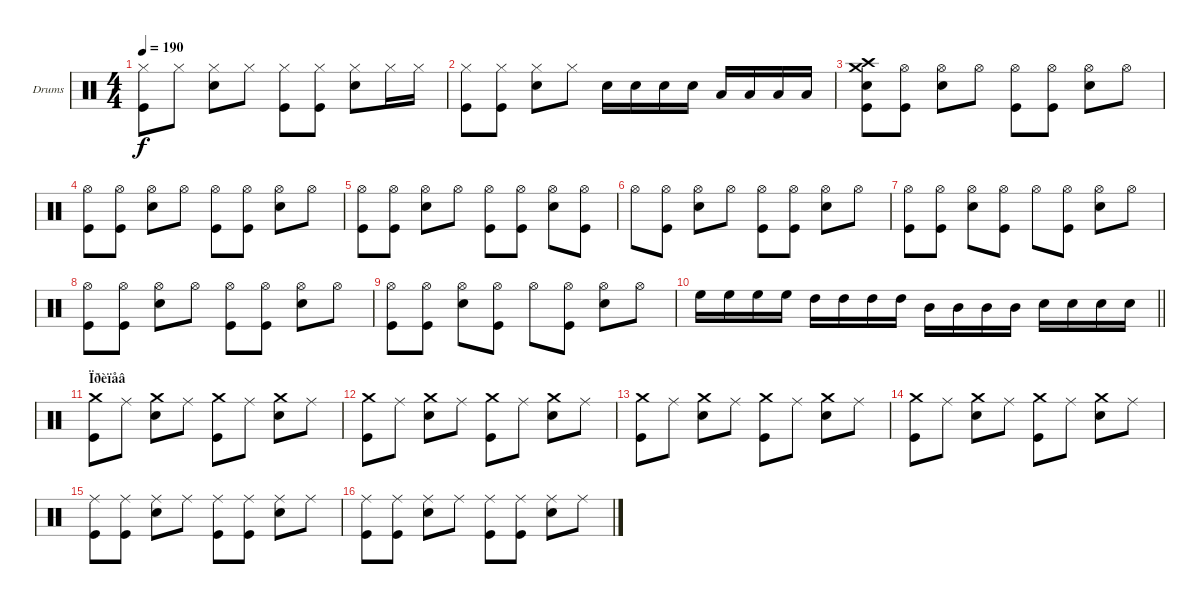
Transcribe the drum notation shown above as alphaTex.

\bracketExtendMode groupsimilarinstruments
\firstSystemTrackNameOrientation horizontal
\otherSystemsTrackNameOrientation horizontal
\track ("Drumkit" "Drums") {instrument percussion}
\staff {score}
\articulation defaults
\ts (4 4)
\tempo 190
\clef neutral
\ks c
("Hi-Hat (closed)" "Kick (hit)").8{dy f} "Hi-Hat (closed)".8 ("Hi-Hat (closed)" "Snare (hit) 2").8 "Hi-Hat (closed)".8 ("Hi-Hat (closed)" "Kick (hit)").8 ("Hi-Hat (closed)" "Kick (hit)").8 ("Hi-Hat (closed)" "Snare (hit) 2").8 "Hi-Hat (closed)".16 "Hi-Hat (closed)".16 |
("Hi-Hat (closed)" "Kick (hit)").8 ("Hi-Hat (closed)" "Kick (hit)").8 ("Hi-Hat (closed)" "Snare (hit) 2").8 "Hi-Hat (closed)".8 "Snare (hit) 2".16 "Snare (hit) 2".16 "Snare (hit) 2".16 "Snare (hit) 2".16 "Low Tom (hit)".16 "Low Tom (hit)".16 "Low Tom (hit)".16 "Low Tom (hit)".16 |
("Crash high (hit)" "Crash medium (hit)" "Kick (hit)" "Snare (hit) 2").8 ("Hi-Hat (open)" "Kick (hit)").8 ("Hi-Hat (open)" "Snare (hit) 2").8 "Hi-Hat (open)".8 ("Hi-Hat (open)" "Kick (hit)").8 ("Hi-Hat (open)" "Kick (hit)").8 ("Hi-Hat (open)" "Snare (hit) 2").8 "Hi-Hat (open)".8 |
("Hi-Hat (open)" "Kick (hit)").8 ("Hi-Hat (open)" "Kick (hit)").8 ("Hi-Hat (open)" "Snare (hit) 2").8 "Hi-Hat (open)".8 ("Hi-Hat (open)" "Kick (hit)").8 ("Hi-Hat (open)" "Kick (hit)").8 ("Hi-Hat (open)" "Snare (hit) 2").8 "Hi-Hat (open)".8 |
("Hi-Hat (open)" "Kick (hit)").8 ("Hi-Hat (open)" "Kick (hit)").8 ("Hi-Hat (open)" "Snare (hit) 2").8 "Hi-Hat (open)".8 ("Hi-Hat (open)" "Kick (hit)").8 ("Hi-Hat (open)" "Kick (hit)").8 ("Hi-Hat (open)" "Snare (hit) 2").8 ("Hi-Hat (open)" "Kick (hit)").8 |
"Hi-Hat (open)".8 ("Hi-Hat (open)" "Kick (hit)").8 ("Hi-Hat (open)" "Snare (hit) 2").8 "Hi-Hat (open)".8 ("Hi-Hat (open)" "Kick (hit)").8 ("Hi-Hat (open)" "Kick (hit)").8 ("Hi-Hat (open)" "Snare (hit) 2").8 "Hi-Hat (open)".8 |
("Hi-Hat (open)" "Kick (hit)").8 ("Hi-Hat (open)" "Kick (hit)").8 ("Hi-Hat (open)" "Snare (hit) 2").8 ("Hi-Hat (open)" "Kick (hit)").8 "Hi-Hat (open)".8 ("Hi-Hat (open)" "Kick (hit)").8 ("Hi-Hat (open)" "Snare (hit) 2").8 "Hi-Hat (open)".8 |
("Hi-Hat (open)" "Kick (hit)").8 ("Hi-Hat (open)" "Kick (hit)").8 ("Hi-Hat (open)" "Snare (hit) 2").8 "Hi-Hat (open)".8 ("Hi-Hat (open)" "Kick (hit)").8 ("Hi-Hat (open)" "Kick (hit)").8 ("Hi-Hat (open)" "Snare (hit) 2").8 "Hi-Hat (open)".8 |
("Hi-Hat (open)" "Kick (hit)").8 ("Hi-Hat (open)" "Kick (hit)").8 ("Hi-Hat (open)" "Snare (hit) 2").8 ("Hi-Hat (open)" "Kick (hit)").8 "Hi-Hat (open)".8 ("Hi-Hat (open)" "Kick (hit)").8 ("Hi-Hat (open)" "Snare (hit) 2").8 "Hi-Hat (open)".8 |
\barLineRight lightlight "High Floor Tom (hit)".16 "High Floor Tom (hit)".16 "High Floor Tom (hit)".16 "High Floor Tom (hit)".16 "High Tom (hit)".16 "High Tom (hit)".16 "High Tom (hit)".16 "High Tom (hit)".16 "Mid Tom (hit)".16 "Mid Tom (hit)".16 "Mid Tom (hit)".16 "Mid Tom (hit)".16 "Snare (hit) 2".16 "Snare (hit) 2".16 "Snare (hit) 2".16 "Snare (hit) 2".16
|
\section ("" "Ïðèïåâ")
("Kick (hit)" "Crash medium (hit)").8 "Ride (middle)".8 ("Snare (hit) 2" "Crash medium (hit)").8 "Ride (middle)".8 ("Kick (hit)" "Crash medium (hit)").8 "Ride (middle)".8 ("Snare (hit) 2" "Crash medium (hit)").8 "Ride (middle)".8 |
("Kick (hit)" "Crash medium (hit)").8 "Ride (middle)".8 ("Snare (hit) 2" "Crash medium (hit)").8 "Ride (middle)".8 ("Kick (hit)" "Crash medium (hit)").8 "Ride (middle)".8 ("Snare (hit) 2" "Crash medium (hit)").8 "Ride (middle)".8 |
("Kick (hit)" "Crash medium (hit)").8 "Ride (middle)".8 ("Snare (hit) 2" "Crash medium (hit)").8 "Ride (middle)".8 ("Kick (hit)" "Crash medium (hit)").8 "Ride (middle)".8 ("Snare (hit) 2" "Crash medium (hit)").8 "Ride (middle)".8 |
("Kick (hit)" "Crash medium (hit)").8 "Ride (middle)".8 ("Snare (hit) 2" "Crash medium (hit)").8 "Ride (middle)".8 ("Kick (hit)" "Crash medium (hit)").8 "Ride (middle)".8 ("Snare (hit) 2" "Crash medium (hit)").8 "Ride (middle)".8 |
("Kick (hit)" "Ride (middle)").8 ("Ride (middle)" "Kick (hit)").8 ("Snare (hit) 2" "Ride (middle)").8 "Ride (middle)".8 ("Kick (hit)" "Ride (middle)").8 ("Ride (middle)" "Kick (hit)").8 ("Snare (hit) 2" "Ride (middle)").8 "Ride (middle)".8 |
("Kick (hit)" "Ride (middle)").8 ("Ride (middle)" "Kick (hit)").8 ("Snare (hit) 2" "Ride (middle)").8 "Ride (middle)".8 ("Kick (hit)" "Ride (middle)").8 ("Ride (middle)" "Kick (hit)").8 ("Snare (hit) 2" "Ride (middle)").8 "Ride (middle)".8
